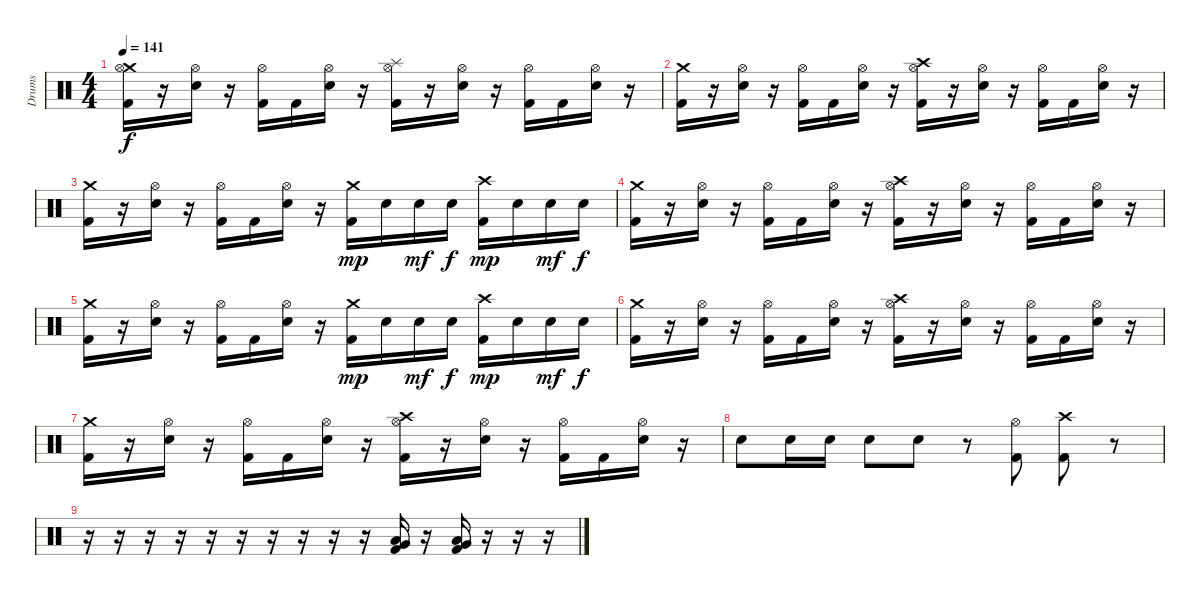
\track ("Drums" "Drums") {instrument percussion}
\staff {score}
\articulation defaults
\ts (4 4)
\tempo 141
\clef neutral
\ks c
("Crash medium (hit)" "Hi-Hat (open)" "Kick (hit) 2").16{dy f} r.16 ("Hi-Hat (open)" "Electric Snare (hit)").16 r.16 ("Hi-Hat (open)" "Kick (hit) 2").16 "Kick (hit) 2".16 ("Hi-Hat (open)" "Electric Snare (hit)").16 r.16 ("Splash (hit)" "Hi-Hat (open)" "Kick (hit) 2").16 r.16 ("Hi-Hat (open)" "Electric Snare (hit)").16 r.16 ("Hi-Hat (open)" "Kick (hit) 2").16 "Kick (hit) 2".16 ("Hi-Hat (open)" "Electric Snare (hit)").16 r.16 |
("Crash medium (hit)" "Kick (hit) 2").16 r.16 ("Hi-Hat (open)" "Electric Snare (hit)").16 r.16 ("Hi-Hat (open)" "Kick (hit) 2").16 "Kick (hit) 2".16 ("Hi-Hat (open)" "Electric Snare (hit)").16 r.16 ("Crash high (hit)" "Hi-Hat (open)" "Kick (hit) 2").16 r.16 ("Hi-Hat (open)" "Electric Snare (hit)").16 r.16 ("Hi-Hat (open)" "Kick (hit) 2").16 "Kick (hit) 2".16 ("Hi-Hat (open)" "Electric Snare (hit)").16 r.16 |
("Crash medium (hit)" "Kick (hit) 2").16 r.16 ("Hi-Hat (open)" "Electric Snare (hit)").16 r.16 ("Hi-Hat (open)" "Kick (hit) 2").16 "Kick (hit) 2".16 ("Hi-Hat (open)" "Electric Snare (hit)").16 r.16 ("Crash medium (hit)" "Kick (hit) 2").16{dy mp} "Electric Snare (hit)".16 "Electric Snare (hit)".16{dy mf} "Electric Snare (hit)".16{dy f} ("Crash high (hit)" "Kick (hit) 2").16{dy mp} "Electric Snare (hit)".16 "Electric Snare (hit)".16{dy mf} "Electric Snare (hit)".16{dy f} |
("Crash medium (hit)" "Kick (hit) 2").16 r.16 ("Hi-Hat (open)" "Electric Snare (hit)").16 r.16 ("Hi-Hat (open)" "Kick (hit) 2").16 "Kick (hit) 2".16 ("Hi-Hat (open)" "Electric Snare (hit)").16 r.16 ("Crash high (hit)" "Hi-Hat (open)" "Kick (hit) 2").16 r.16 ("Hi-Hat (open)" "Electric Snare (hit)").16 r.16 ("Hi-Hat (open)" "Kick (hit) 2").16 "Kick (hit) 2".16 ("Hi-Hat (open)" "Electric Snare (hit)").16 r.16 |
("Crash medium (hit)" "Kick (hit) 2").16 r.16 ("Hi-Hat (open)" "Electric Snare (hit)").16 r.16 ("Hi-Hat (open)" "Kick (hit) 2").16 "Kick (hit) 2".16 ("Hi-Hat (open)" "Electric Snare (hit)").16 r.16 ("Crash medium (hit)" "Kick (hit) 2").16{dy mp} "Electric Snare (hit)".16 "Electric Snare (hit)".16{dy mf} "Electric Snare (hit)".16{dy f} ("Crash high (hit)" "Kick (hit) 2").16{dy mp} "Electric Snare (hit)".16 "Electric Snare (hit)".16{dy mf} "Electric Snare (hit)".16{dy f} |
("Crash medium (hit)" "Kick (hit) 2").16 r.16 ("Hi-Hat (open)" "Electric Snare (hit)").16 r.16 ("Hi-Hat (open)" "Kick (hit) 2").16 "Kick (hit) 2".16 ("Hi-Hat (open)" "Electric Snare (hit)").16 r.16 ("Crash high (hit)" "Hi-Hat (open)" "Kick (hit) 2").16 r.16 ("Hi-Hat (open)" "Electric Snare (hit)").16 r.16 ("Hi-Hat (open)" "Kick (hit) 2").16 "Kick (hit) 2".16 ("Hi-Hat (open)" "Electric Snare (hit)").16 r.16 |
("Crash medium (hit)" "Kick (hit) 2").16 r.16 ("Hi-Hat (open)" "Electric Snare (hit)").16 r.16 ("Hi-Hat (open)" "Kick (hit) 2").16 "Kick (hit) 2".16 ("Hi-Hat (open)" "Electric Snare (hit)").16 r.16 ("Crash high (hit)" "Hi-Hat (open)" "Kick (hit) 2").16 r.16 ("Hi-Hat (open)" "Electric Snare (hit)").16 r.16 ("Hi-Hat (open)" "Kick (hit) 2").16 "Kick (hit) 2".16 ("Hi-Hat (open)" "Electric Snare (hit)").16 r.16 |
"Electric Snare (hit)".8 "Electric Snare (hit)".16 "Electric Snare (hit)".16 "Electric Snare (hit)".8 "Electric Snare (hit)".8 r.8 ("Hi-Hat (open)" "Kick (hit) 2").8 ("Crash high (hit)" "Kick (hit) 2").8 r.8 |
r.16 r.16 r.16 r.16 r.16 r.16 r.16 r.16 r.16 r.16 ("Low Tom (hit)" "Very Low Tom (hit)" "Kick (hit) 2").16 r.16 ("Low Tom (hit)" "Very Low Tom (hit)" "Kick (hit) 2").16 r.16 r.16 r.16
